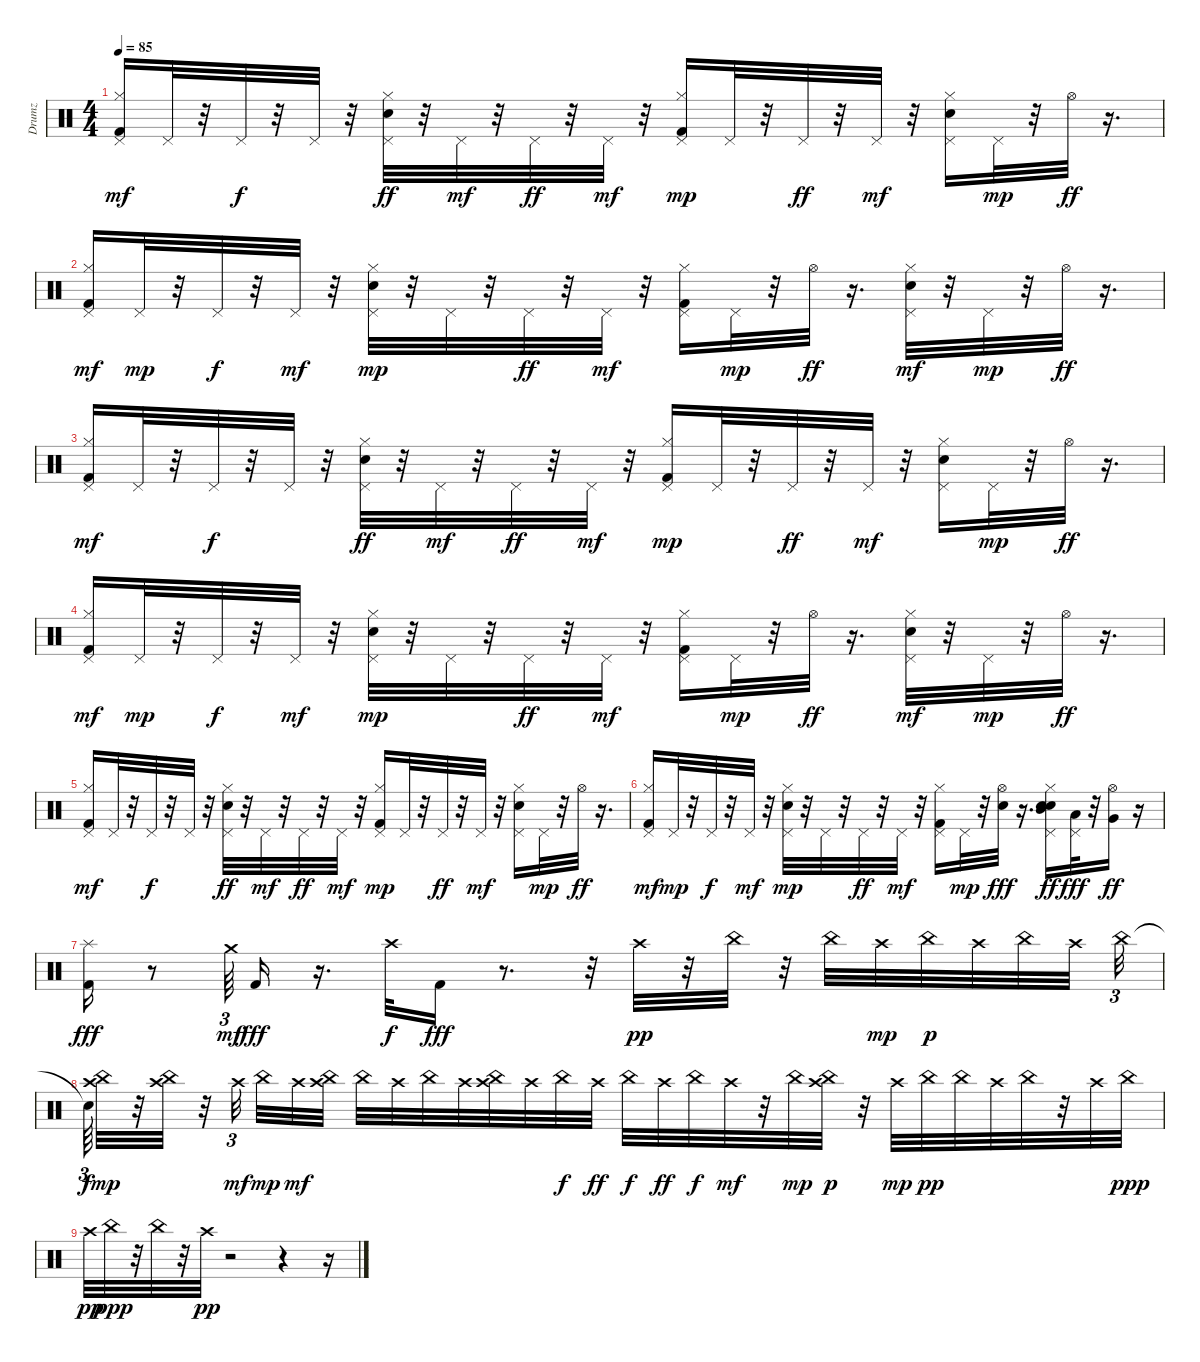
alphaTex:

\track ("Drumz" "Drumz") {instrument percussion}
\staff {score}
\articulation defaults
\ts (4 4)
\tempo 85
\clef neutral
\ks c
("Kick (hit) 2" "Hi-Hat (closed)" "Pedal Hi-Hat (hit)").16{dy mf volume 12} "Pedal Hi-Hat (hit)".32 r.32 "Pedal Hi-Hat (hit)".32{dy f} r.32 "Pedal Hi-Hat (hit)".32 r.32 ("Hand Clap (hit)" "Hi-Hat (closed)" "Pedal Hi-Hat (hit)").32{dy ff} r.32 "Pedal Hi-Hat (hit)".32{dy mf} r.32 "Pedal Hi-Hat (hit)".32{dy ff} r.32 "Pedal Hi-Hat (hit)".32{dy mf} r.32 ("Kick (hit) 2" "Hi-Hat (closed)" "Pedal Hi-Hat (hit)").16{dy mp} "Pedal Hi-Hat (hit)".32 r.32 "Pedal Hi-Hat (hit)".32{dy ff} r.32 "Pedal Hi-Hat (hit)".32{dy mf} r.32 ("Hand Clap (hit)" "Hi-Hat (closed)" "Pedal Hi-Hat (hit)").16 "Pedal Hi-Hat (hit)".32{dy mp} r.32 "Hi-Hat (open)".32{dy ff} r.16{d} |
("Kick (hit) 2" "Hi-Hat (closed)" "Pedal Hi-Hat (hit)").16{dy mf} "Pedal Hi-Hat (hit)".32{dy mp} r.32 "Pedal Hi-Hat (hit)".32{dy f} r.32 "Pedal Hi-Hat (hit)".32{dy mf} r.32 ("Hand Clap (hit)" "Hi-Hat (closed)" "Pedal Hi-Hat (hit)").32{dy mp} r.32 "Pedal Hi-Hat (hit)".32 r.32 "Pedal Hi-Hat (hit)".32{dy ff} r.32 "Pedal Hi-Hat (hit)".32{dy mf} r.32 ("Kick (hit) 2" "Hi-Hat (closed)" "Pedal Hi-Hat (hit)").16 "Pedal Hi-Hat (hit)".32{dy mp} r.32 "Hi-Hat (open)".32{dy ff} r.16{d} ("Hand Clap (hit)" "Hi-Hat (closed)" "Pedal Hi-Hat (hit)").32{dy mf} r.32 "Pedal Hi-Hat (hit)".32{dy mp} r.32 "Hi-Hat (open)".32{dy ff} r.16{d} |
("Kick (hit) 2" "Hi-Hat (closed)" "Pedal Hi-Hat (hit)").16{dy mf} "Pedal Hi-Hat (hit)".32 r.32 "Pedal Hi-Hat (hit)".32{dy f} r.32 "Pedal Hi-Hat (hit)".32 r.32 ("Hand Clap (hit)" "Hi-Hat (closed)" "Pedal Hi-Hat (hit)").32{dy ff} r.32 "Pedal Hi-Hat (hit)".32{dy mf} r.32 "Pedal Hi-Hat (hit)".32{dy ff} r.32 "Pedal Hi-Hat (hit)".32{dy mf} r.32 ("Kick (hit) 2" "Hi-Hat (closed)" "Pedal Hi-Hat (hit)").16{dy mp} "Pedal Hi-Hat (hit)".32 r.32 "Pedal Hi-Hat (hit)".32{dy ff} r.32 "Pedal Hi-Hat (hit)".32{dy mf} r.32 ("Hand Clap (hit)" "Hi-Hat (closed)" "Pedal Hi-Hat (hit)").16 "Pedal Hi-Hat (hit)".32{dy mp} r.32 "Hi-Hat (open)".32{dy ff} r.16{d} |
("Kick (hit) 2" "Hi-Hat (closed)" "Pedal Hi-Hat (hit)").16{dy mf} "Pedal Hi-Hat (hit)".32{dy mp} r.32 "Pedal Hi-Hat (hit)".32{dy f} r.32 "Pedal Hi-Hat (hit)".32{dy mf} r.32 ("Hand Clap (hit)" "Hi-Hat (closed)" "Pedal Hi-Hat (hit)").32{dy mp} r.32 "Pedal Hi-Hat (hit)".32 r.32 "Pedal Hi-Hat (hit)".32{dy ff} r.32 "Pedal Hi-Hat (hit)".32{dy mf} r.32 ("Kick (hit) 2" "Hi-Hat (closed)" "Pedal Hi-Hat (hit)").16 "Pedal Hi-Hat (hit)".32{dy mp} r.32 "Hi-Hat (open)".32{dy ff} r.16{d} ("Hand Clap (hit)" "Hi-Hat (closed)" "Pedal Hi-Hat (hit)").32{dy mf} r.32 "Pedal Hi-Hat (hit)".32{dy mp} r.32 "Hi-Hat (open)".32{dy ff} r.16{d} |
("Kick (hit) 2" "Hi-Hat (closed)" "Pedal Hi-Hat (hit)").16{dy mf} "Pedal Hi-Hat (hit)".32 r.32 "Pedal Hi-Hat (hit)".32{dy f} r.32 "Pedal Hi-Hat (hit)".32 r.32 ("Hand Clap (hit)" "Hi-Hat (closed)" "Pedal Hi-Hat (hit)").32{dy ff} r.32 "Pedal Hi-Hat (hit)".32{dy mf} r.32 "Pedal Hi-Hat (hit)".32{dy ff} r.32 "Pedal Hi-Hat (hit)".32{dy mf} r.32 ("Kick (hit) 2" "Hi-Hat (closed)" "Pedal Hi-Hat (hit)").16{dy mp} "Pedal Hi-Hat (hit)".32 r.32 "Pedal Hi-Hat (hit)".32{dy ff} r.32 "Pedal Hi-Hat (hit)".32{dy mf} r.32 ("Hand Clap (hit)" "Hi-Hat (closed)" "Pedal Hi-Hat (hit)").16 "Pedal Hi-Hat (hit)".32{dy mp} r.32 "Hi-Hat (open)".32{dy ff} r.16{d} |
("Kick (hit) 2" "Hi-Hat (closed)" "Pedal Hi-Hat (hit)").16{dy mf} "Pedal Hi-Hat (hit)".32{dy mp} r.32 "Pedal Hi-Hat (hit)".32{dy f} r.32 "Pedal Hi-Hat (hit)".32{dy mf} r.32 ("Hand Clap (hit)" "Hi-Hat (closed)" "Pedal Hi-Hat (hit)").32{dy mp} r.32 "Pedal Hi-Hat (hit)".32 r.32 "Pedal Hi-Hat (hit)".32{dy ff} r.32 "Pedal Hi-Hat (hit)".32{dy mf} r.32 ("Kick (hit) 2" "Hi-Hat (closed)" "Pedal Hi-Hat (hit)").16 "Pedal Hi-Hat (hit)".32{dy mp} r.32 ("Hi-Hat (open)" "Electric Snare (hit)").32{dy fff} r.16{d} ("Hand Clap (hit)" "Hi-Hat (closed)" "Pedal Hi-Hat (hit)" "Electric Snare (hit)" "Mid Tom (hit)").16{dy ff} ("Pedal Hi-Hat (hit)" "Low Tom (hit)").32{dy fff} r.32 ("Hi-Hat (open)" "Very Low Tom (hit)").16{dy ff} r.16 |
("Kick (hit) 2" "Splash (hit)").16{dy fff volume 12} r.8 "Crash medium (hit)".64{tu (3 2) dy mf} "Kick (hit) 2".16{dy fff} r.16{d} "Crash high (hit)".32{dy f} "Kick (hit) 2".16{dy fff} r.8{d} r.32 "Crash high (hit)".32{dy pp} r.32 "China (hit)".32 r.32 "China (hit)".32 "Crash high (hit)".32{dy mp} "China (hit)".32{dy p} "Crash high (hit)".32 "China (hit)".32 "Crash high (hit)".32{beam splitsecondary} "China (hit)".32{tu (3 2)} |
"Snare (hit)"{t}.64{tu (3 2) dy f} ("Crash high (hit)" "China (hit)").32{dy mp} r.32 ("Crash high (hit)" "China (hit)").32 r.32 "Crash high (hit)".32{tu (3 2) dy mf beam splitsecondary} "China (hit)".32{dy mp} "Crash high (hit)".32{dy mf} ("China (hit)" "Crash high (hit)").32 "China (hit)".32 "Crash high (hit)".32 "China (hit)".32 "Crash high (hit)".32 ("Crash high (hit)" "China (hit)").32 "Crash high (hit)".32 "China (hit)".32{dy f} "Crash high (hit)".32{dy ff} "China (hit)".32{dy f} "Crash high (hit)".32{dy ff} "China (hit)".32{dy f} "Crash high (hit)".32{dy mf} r.32 "China (hit)".32{dy mp} ("Crash high (hit)" "China (hit)").32{dy p} r.32 "Crash high (hit)".32{dy mp} "China (hit)".32{dy pp} "China (hit)".32 "Crash high (hit)".32 "China (hit)".32 r.32 "Crash high (hit)".32 "China (hit)".32{dy ppp} |
"Crash high (hit)".32{dy pp} "China (hit)".32{dy ppp} r.32 "China (hit)".32 r.32 "Crash high (hit)".32{dy pp} r.2 r.4 r.16
